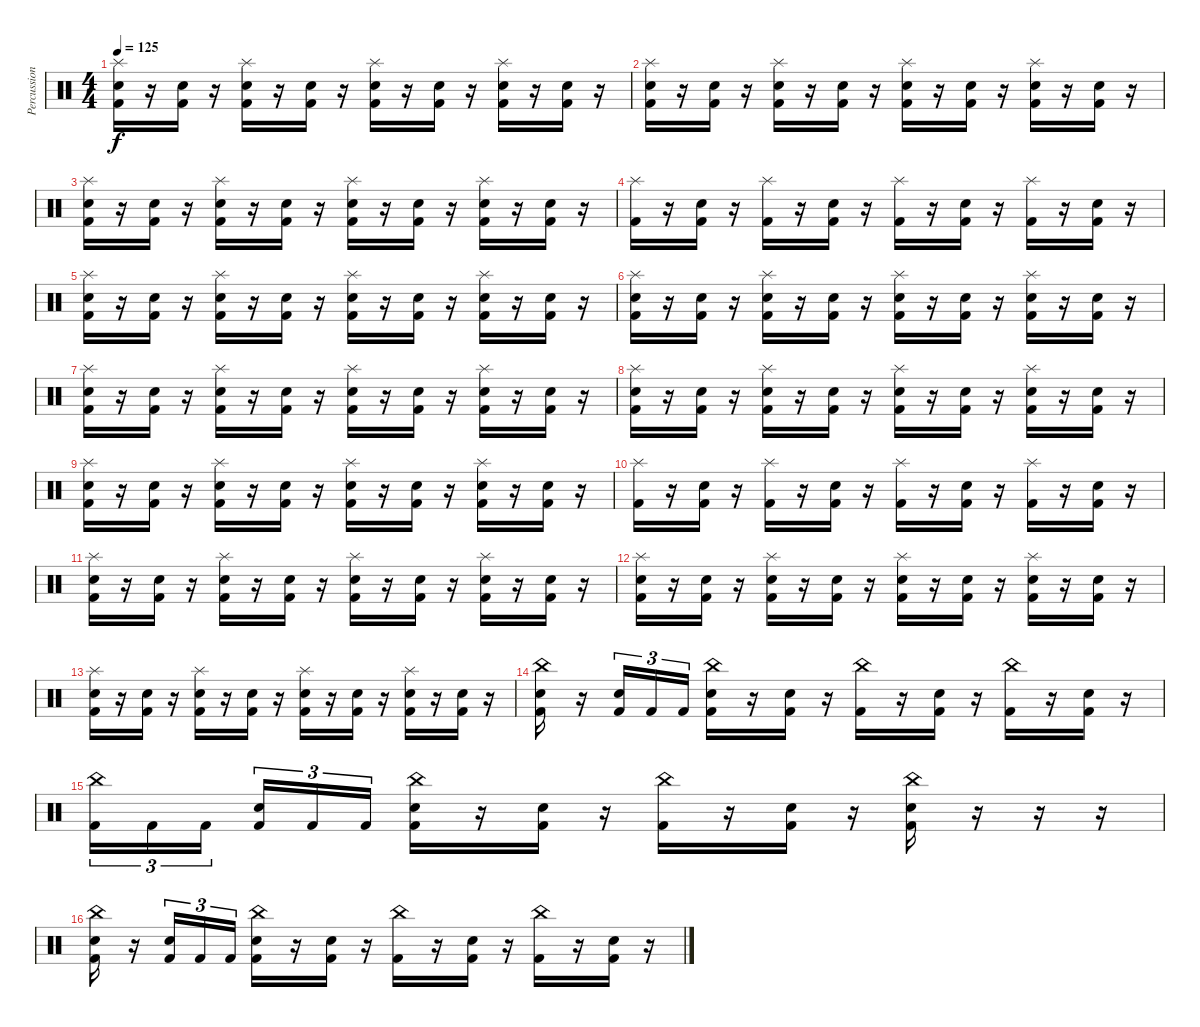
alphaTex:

\track ("Percussion" "Percussion") {instrument percussion}
\staff {score}
\articulation defaults
\ts (4 4)
\tempo 125
\clef neutral
\ks c
("Splash (hit)" "Electric Snare (hit)" "Kick (hit) 2").16{dy f} r.16 ("Electric Snare (hit)" "Kick (hit) 2").16 r.16 ("Splash (hit)" "Electric Snare (hit)" "Kick (hit) 2").16 r.16 ("Electric Snare (hit)" "Kick (hit) 2").16 r.16 ("Splash (hit)" "Electric Snare (hit)" "Kick (hit) 2").16 r.16 ("Electric Snare (hit)" "Kick (hit) 2").16 r.16 ("Splash (hit)" "Electric Snare (hit)" "Kick (hit) 2").16 r.16 ("Electric Snare (hit)" "Kick (hit) 2").16 r.16 |
("Splash (hit)" "Electric Snare (hit)" "Kick (hit) 2").16 r.16 ("Electric Snare (hit)" "Kick (hit) 2").16 r.16 ("Splash (hit)" "Electric Snare (hit)" "Kick (hit) 2").16 r.16 ("Electric Snare (hit)" "Kick (hit) 2").16 r.16 ("Splash (hit)" "Electric Snare (hit)" "Kick (hit) 2").16 r.16 ("Electric Snare (hit)" "Kick (hit) 2").16 r.16 ("Splash (hit)" "Electric Snare (hit)" "Kick (hit) 2").16 r.16 ("Electric Snare (hit)" "Kick (hit) 2").16 r.16 |
("Splash (hit)" "Electric Snare (hit)" "Kick (hit) 2").16 r.16 ("Electric Snare (hit)" "Kick (hit) 2").16 r.16 ("Splash (hit)" "Electric Snare (hit)" "Kick (hit) 2").16 r.16 ("Electric Snare (hit)" "Kick (hit) 2").16 r.16 ("Splash (hit)" "Electric Snare (hit)" "Kick (hit) 2").16 r.16 ("Electric Snare (hit)" "Kick (hit) 2").16 r.16 ("Splash (hit)" "Electric Snare (hit)" "Kick (hit) 2").16 r.16 ("Electric Snare (hit)" "Kick (hit) 2").16 r.16 |
("Splash (hit)" "Kick (hit) 2").16 r.16 ("Electric Snare (hit)" "Kick (hit) 2").16 r.16 ("Splash (hit)" "Kick (hit) 2").16 r.16 ("Electric Snare (hit)" "Kick (hit) 2").16 r.16 ("Splash (hit)" "Kick (hit) 2").16 r.16 ("Electric Snare (hit)" "Kick (hit) 2").16 r.16 ("Splash (hit)" "Kick (hit) 2").16 r.16 ("Electric Snare (hit)" "Kick (hit) 2").16 r.16 |
("Splash (hit)" "Electric Snare (hit)" "Kick (hit) 2").16 r.16 ("Electric Snare (hit)" "Kick (hit) 2").16 r.16 ("Splash (hit)" "Electric Snare (hit)" "Kick (hit) 2").16 r.16 ("Electric Snare (hit)" "Kick (hit) 2").16 r.16 ("Splash (hit)" "Electric Snare (hit)" "Kick (hit) 2").16 r.16 ("Electric Snare (hit)" "Kick (hit) 2").16 r.16 ("Splash (hit)" "Electric Snare (hit)" "Kick (hit) 2").16 r.16 ("Electric Snare (hit)" "Kick (hit) 2").16 r.16 |
("Splash (hit)" "Electric Snare (hit)" "Kick (hit) 2").16 r.16 ("Electric Snare (hit)" "Kick (hit) 2").16 r.16 ("Splash (hit)" "Electric Snare (hit)" "Kick (hit) 2").16 r.16 ("Electric Snare (hit)" "Kick (hit) 2").16 r.16 ("Splash (hit)" "Electric Snare (hit)" "Kick (hit) 2").16 r.16 ("Electric Snare (hit)" "Kick (hit) 2").16 r.16 ("Splash (hit)" "Electric Snare (hit)" "Kick (hit) 2").16 r.16 ("Electric Snare (hit)" "Kick (hit) 2").16 r.16 |
("Splash (hit)" "Electric Snare (hit)" "Kick (hit) 2").16 r.16 ("Electric Snare (hit)" "Kick (hit) 2").16 r.16 ("Splash (hit)" "Electric Snare (hit)" "Kick (hit) 2").16 r.16 ("Electric Snare (hit)" "Kick (hit) 2").16 r.16 ("Splash (hit)" "Electric Snare (hit)" "Kick (hit) 2").16 r.16 ("Electric Snare (hit)" "Kick (hit) 2").16 r.16 ("Splash (hit)" "Electric Snare (hit)" "Kick (hit) 2").16 r.16 ("Electric Snare (hit)" "Kick (hit) 2").16 r.16 |
("Splash (hit)" "Electric Snare (hit)" "Kick (hit) 2").16 r.16 ("Electric Snare (hit)" "Kick (hit) 2").16 r.16 ("Splash (hit)" "Electric Snare (hit)" "Kick (hit) 2").16 r.16 ("Electric Snare (hit)" "Kick (hit) 2").16 r.16 ("Splash (hit)" "Electric Snare (hit)" "Kick (hit) 2").16 r.16 ("Electric Snare (hit)" "Kick (hit) 2").16 r.16 ("Splash (hit)" "Electric Snare (hit)" "Kick (hit) 2").16 r.16 ("Electric Snare (hit)" "Kick (hit) 2").16 r.16 |
("Splash (hit)" "Electric Snare (hit)" "Kick (hit) 2").16 r.16 ("Electric Snare (hit)" "Kick (hit) 2").16 r.16 ("Splash (hit)" "Electric Snare (hit)" "Kick (hit) 2").16 r.16 ("Electric Snare (hit)" "Kick (hit) 2").16 r.16 ("Splash (hit)" "Electric Snare (hit)" "Kick (hit) 2").16 r.16 ("Electric Snare (hit)" "Kick (hit) 2").16 r.16 ("Splash (hit)" "Electric Snare (hit)" "Kick (hit) 2").16 r.16 ("Electric Snare (hit)" "Kick (hit) 2").16 r.16 |
("Splash (hit)" "Kick (hit) 2").16 r.16 ("Electric Snare (hit)" "Kick (hit) 2").16 r.16 ("Splash (hit)" "Kick (hit) 2").16 r.16 ("Electric Snare (hit)" "Kick (hit) 2").16 r.16 ("Splash (hit)" "Kick (hit) 2").16 r.16 ("Electric Snare (hit)" "Kick (hit) 2").16 r.16 ("Splash (hit)" "Kick (hit) 2").16 r.16 ("Electric Snare (hit)" "Kick (hit) 2").16 r.16 |
("Splash (hit)" "Electric Snare (hit)" "Kick (hit) 2").16 r.16 ("Electric Snare (hit)" "Kick (hit) 2").16 r.16 ("Splash (hit)" "Electric Snare (hit)" "Kick (hit) 2").16 r.16 ("Electric Snare (hit)" "Kick (hit) 2").16 r.16 ("Splash (hit)" "Electric Snare (hit)" "Kick (hit) 2").16 r.16 ("Electric Snare (hit)" "Kick (hit) 2").16 r.16 ("Splash (hit)" "Electric Snare (hit)" "Kick (hit) 2").16 r.16 ("Electric Snare (hit)" "Kick (hit) 2").16 r.16 |
("Splash (hit)" "Electric Snare (hit)" "Kick (hit) 2").16 r.16 ("Electric Snare (hit)" "Kick (hit) 2").16 r.16 ("Splash (hit)" "Electric Snare (hit)" "Kick (hit) 2").16 r.16 ("Electric Snare (hit)" "Kick (hit) 2").16 r.16 ("Splash (hit)" "Electric Snare (hit)" "Kick (hit) 2").16 r.16 ("Electric Snare (hit)" "Kick (hit) 2").16 r.16 ("Splash (hit)" "Electric Snare (hit)" "Kick (hit) 2").16 r.16 ("Electric Snare (hit)" "Kick (hit) 2").16 r.16 |
("Splash (hit)" "Electric Snare (hit)" "Kick (hit) 2").16 r.16 ("Electric Snare (hit)" "Kick (hit) 2").16 r.16 ("Splash (hit)" "Electric Snare (hit)" "Kick (hit) 2").16 r.16 ("Electric Snare (hit)" "Kick (hit) 2").16 r.16 ("Splash (hit)" "Electric Snare (hit)" "Kick (hit) 2").16 r.16 ("Electric Snare (hit)" "Kick (hit) 2").16 r.16 ("Splash (hit)" "Electric Snare (hit)" "Kick (hit) 2").16 r.16 ("Electric Snare (hit)" "Kick (hit) 2").16 r.16 |
("China (hit)" "Electric Snare (hit)" "Kick (hit) 2").16 r.16 ("Electric Snare (hit)" "Kick (hit) 2").16{tu (3 2)} "Kick (hit) 2".16{tu (3 2)} "Kick (hit) 2".16{tu (3 2)} ("China (hit)" "Electric Snare (hit)" "Kick (hit) 2").16 r.16 ("Electric Snare (hit)" "Kick (hit) 2").16 r.16 ("China (hit)" "Kick (hit) 2").16 r.16 ("Electric Snare (hit)" "Kick (hit) 2").16 r.16 ("China (hit)" "Kick (hit) 2").16 r.16 ("Electric Snare (hit)" "Kick (hit) 2").16 r.16 |
("China (hit)" "Kick (hit) 2").16{tu (3 2)} "Kick (hit) 2".16{tu (3 2)} "Kick (hit) 2".16{tu (3 2) beam splitsecondary} ("Electric Snare (hit)" "Kick (hit) 2").16{tu (3 2)} "Kick (hit) 2".16{tu (3 2)} "Kick (hit) 2".16{tu (3 2)} ("China (hit)" "Electric Snare (hit)" "Kick (hit) 2").16 r.16 ("Electric Snare (hit)" "Kick (hit) 2").16 r.16 ("China (hit)" "Kick (hit) 2").16 r.16 ("Electric Snare (hit)" "Kick (hit) 2").16 r.16 ("China (hit)" "Electric Snare (hit)" "Kick (hit) 2").16 r.16 r.16 r.16 |
("China (hit)" "Electric Snare (hit)" "Kick (hit) 2").16 r.16 ("Electric Snare (hit)" "Kick (hit) 2").16{tu (3 2)} "Kick (hit) 2".16{tu (3 2)} "Kick (hit) 2".16{tu (3 2)} ("China (hit)" "Electric Snare (hit)" "Kick (hit) 2").16 r.16 ("Electric Snare (hit)" "Kick (hit) 2").16 r.16 ("China (hit)" "Kick (hit) 2").16 r.16 ("Electric Snare (hit)" "Kick (hit) 2").16 r.16 ("China (hit)" "Kick (hit) 2").16 r.16 ("Electric Snare (hit)" "Kick (hit) 2").16 r.16
